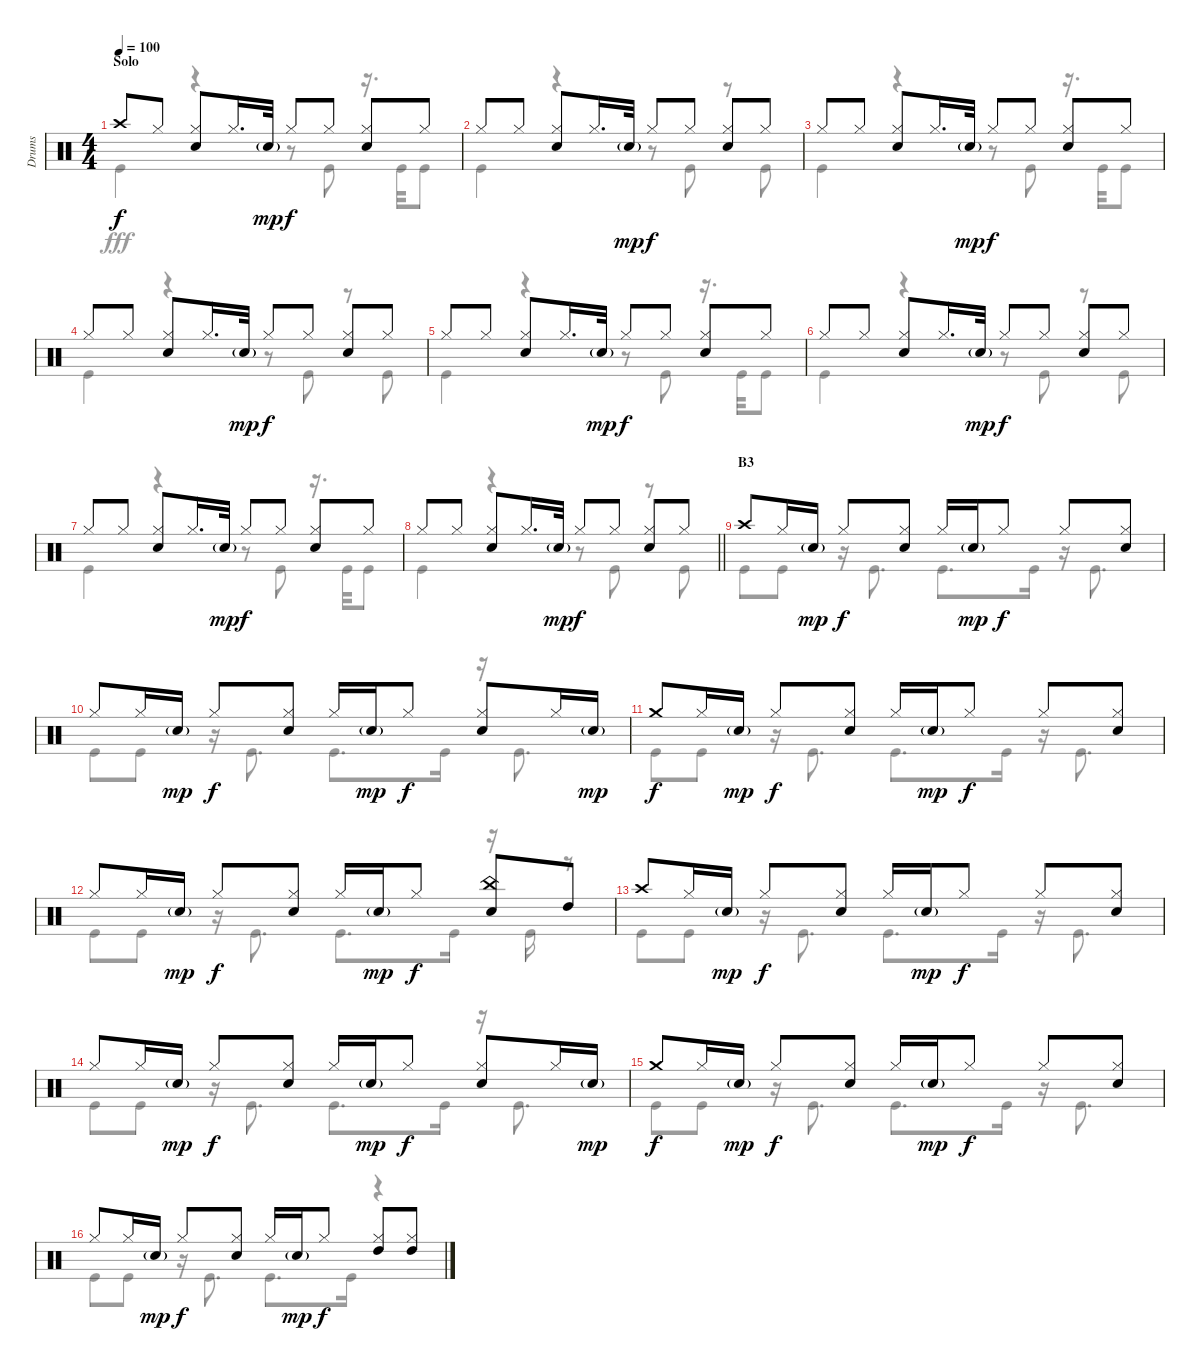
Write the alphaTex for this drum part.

\track ("Drums" "Drums") {instrument percussion}
\staff {score}
\articulation defaults
\voice
\ts (4 4)
\section ("" "Solo")
\tempo 100
\clef neutral
\ks c "Crash high (hit)".8{dy f} "Hi-Hat (closed)".8
("Hi-Hat (closed)" "Snare (hit) 2").8 "Hi-Hat (closed)".16{d} "Snare (hit) 2"{g}.32{dy mp} "Hi-Hat (closed)".8{dy f} "Hi-Hat (closed)".8 ("Hi-Hat (closed)" "Snare (hit) 2").8 "Hi-Hat (closed)".8 |
"Hi-Hat (closed)".8 "Hi-Hat (closed)".8 ("Hi-Hat (closed)" "Snare (hit) 2").8 "Hi-Hat (closed)".16{d} "Snare (hit) 2"{g}.32{dy mp} "Hi-Hat (closed)".8{dy f} "Hi-Hat (closed)".8 ("Hi-Hat (closed)" "Snare (hit) 2").8 "Hi-Hat (closed)".8 |
"Hi-Hat (closed)".8 "Hi-Hat (closed)".8 ("Hi-Hat (closed)" "Snare (hit) 2").8 "Hi-Hat (closed)".16{d} "Snare (hit) 2"{g}.32{dy mp} "Hi-Hat (closed)".8{dy f} "Hi-Hat (closed)".8 ("Hi-Hat (closed)" "Snare (hit) 2").8 "Hi-Hat (closed)".8 |
"Hi-Hat (closed)".8 "Hi-Hat (closed)".8 ("Hi-Hat (closed)" "Snare (hit) 2").8 "Hi-Hat (closed)".16{d} "Snare (hit) 2"{g}.32{dy mp} "Hi-Hat (closed)".8{dy f} "Hi-Hat (closed)".8 ("Hi-Hat (closed)" "Snare (hit) 2").8 "Hi-Hat (closed)".8 |
"Hi-Hat (closed)".8 "Hi-Hat (closed)".8 ("Hi-Hat (closed)" "Snare (hit) 2").8 "Hi-Hat (closed)".16{d} "Snare (hit) 2"{g}.32{dy mp} "Hi-Hat (closed)".8{dy f} "Hi-Hat (closed)".8 ("Hi-Hat (closed)" "Snare (hit) 2").8 "Hi-Hat (closed)".8 |
"Hi-Hat (closed)".8 "Hi-Hat (closed)".8 ("Hi-Hat (closed)" "Snare (hit) 2").8 "Hi-Hat (closed)".16{d} "Snare (hit) 2"{g}.32{dy mp} "Hi-Hat (closed)".8{dy f} "Hi-Hat (closed)".8 ("Hi-Hat (closed)" "Snare (hit) 2").8 "Hi-Hat (closed)".8 |
"Hi-Hat (closed)".8 "Hi-Hat (closed)".8 ("Hi-Hat (closed)" "Snare (hit) 2").8 "Hi-Hat (closed)".16{d} "Snare (hit) 2"{g}.32{dy mp} "Hi-Hat (closed)".8{dy f} "Hi-Hat (closed)".8 ("Hi-Hat (closed)" "Snare (hit) 2").8 "Hi-Hat (closed)".8 |
\barLineRight lightlight "Hi-Hat (closed)".8 "Hi-Hat (closed)".8
("Hi-Hat (closed)" "Snare (hit) 2").8 "Hi-Hat (closed)".16{d} "Snare (hit) 2"{g}.32{dy mp} "Hi-Hat (closed)".8{dy f} "Hi-Hat (closed)".8 ("Hi-Hat (closed)" "Snare (hit) 2").8 "Hi-Hat (closed)".8 |
\section ("" "B3")
"Crash high (hit)".8 "Hi-Hat (closed)".16 "Snare (hit) 2"{g}.16{dy mp} "Hi-Hat (closed)".8{dy f} ("Hi-Hat (closed)" "Snare (hit) 2").8 "Hi-Hat (closed)".16 "Snare (hit) 2"{g}.16{dy mp} "Hi-Hat (closed)".8{dy f} "Hi-Hat (closed)".8 ("Hi-Hat (closed)" "Snare (hit) 2").8 |
"Hi-Hat (closed)".8 "Hi-Hat (closed)".16 "Snare (hit) 2"{g}.16{dy mp} "Hi-Hat (closed)".8{dy f} ("Hi-Hat (closed)" "Snare (hit) 2").8 "Hi-Hat (closed)".16 "Snare (hit) 2"{g}.16{dy mp} "Hi-Hat (closed)".8{dy f} ("Hi-Hat (closed)" "Snare (hit) 2").8 "Hi-Hat (closed)".16 "Snare (hit) 2"{g}.16{dy mp} |
"Crash medium (hit)".8{dy f} "Hi-Hat (closed)".16 "Snare (hit) 2"{g}.16{dy mp} "Hi-Hat (closed)".8{dy f} ("Hi-Hat (closed)" "Snare (hit) 2").8 "Hi-Hat (closed)".16 "Snare (hit) 2"{g}.16{dy mp} "Hi-Hat (closed)".8{dy f} "Hi-Hat (closed)".8 ("Hi-Hat (closed)" "Snare (hit) 2").8 |
"Hi-Hat (closed)".8 "Hi-Hat (closed)".16 "Snare (hit) 2"{g}.16{dy mp} "Hi-Hat (closed)".8{dy f} ("Hi-Hat (closed)" "Snare (hit) 2").8 "Hi-Hat (closed)".16 "Snare (hit) 2"{g}.16{dy mp} "Hi-Hat (closed)".8{dy f} ("China (hit)" "Snare (hit) 2").8 "High Tom (hit)".8 |
"Crash high (hit)".8 "Hi-Hat (closed)".16 "Snare (hit) 2"{g}.16{dy mp} "Hi-Hat (closed)".8{dy f} ("Hi-Hat (closed)" "Snare (hit) 2").8 "Hi-Hat (closed)".16 "Snare (hit) 2"{g}.16{dy mp} "Hi-Hat (closed)".8{dy f} "Hi-Hat (closed)".8 ("Hi-Hat (closed)" "Snare (hit) 2").8 |
"Hi-Hat (closed)".8 "Hi-Hat (closed)".16 "Snare (hit) 2"{g}.16{dy mp} "Hi-Hat (closed)".8{dy f} ("Hi-Hat (closed)" "Snare (hit) 2").8 "Hi-Hat (closed)".16 "Snare (hit) 2"{g}.16{dy mp} "Hi-Hat (closed)".8{dy f} ("Hi-Hat (closed)" "Snare (hit) 2").8 "Hi-Hat (closed)".16 "Snare (hit) 2"{g}.16{dy mp} |
"Crash medium (hit)".8{dy f} "Hi-Hat (closed)".16 "Snare (hit) 2"{g}.16{dy mp} "Hi-Hat (closed)".8{dy f} ("Hi-Hat (closed)" "Snare (hit) 2").8 "Hi-Hat (closed)".16 "Snare (hit) 2"{g}.16{dy mp} "Hi-Hat (closed)".8{dy f} "Hi-Hat (closed)".8 ("Hi-Hat (closed)" "Snare (hit) 2").8 |
"Hi-Hat (closed)".8 "Hi-Hat (closed)".16 "Snare (hit) 2"{g}.16{dy mp} "Hi-Hat (closed)".8{dy f} ("Hi-Hat (closed)" "Snare (hit) 2").8 "Hi-Hat (closed)".16 "Snare (hit) 2"{g}.16{dy mp} "Hi-Hat (closed)".8{dy f} ("Hi-Hat (closed)" "High Tom (hit)").8 ("Hi-Hat (closed)" "High Tom (hit)").8
\voice
\clef neutral
\ottava regular
\simile none
\ks c "Kick (hit)".4{dy fff}
r.4 r.8 "Kick (hit)".8 r.16{d} "Kick (hit)".32 "Kick (hit)".8 |
"Kick (hit)".4 r.4 r.8 "Kick (hit)".8 r.8 "Kick (hit)".8 |
"Kick (hit)".4 r.4 r.8 "Kick (hit)".8 r.16{d} "Kick (hit)".32 "Kick (hit)".8 |
"Kick (hit)".4 r.4 r.8 "Kick (hit)".8 r.8 "Kick (hit)".8 |
"Kick (hit)".4 r.4 r.8 "Kick (hit)".8 r.16{d} "Kick (hit)".32 "Kick (hit)".8 |
"Kick (hit)".4 r.4 r.8 "Kick (hit)".8 r.8 "Kick (hit)".8 |
"Kick (hit)".4 r.4 r.8 "Kick (hit)".8 r.16{d} "Kick (hit)".32 "Kick (hit)".8 |
\barLineRight lightlight "Kick (hit)".4
r.4 r.8 "Kick (hit)".8 r.8 "Kick (hit)".8 |
"Kick (hit)".8 "Kick (hit)".8 r.16 "Kick (hit)".8{d} "Kick (hit)".8{d} "Kick (hit)".16 r.16 "Kick (hit)".8{d} |
"Kick (hit)".8 "Kick (hit)".8 r.16 "Kick (hit)".8{d} "Kick (hit)".8{d} "Kick (hit)".16 r.16 "Kick (hit)".8{d} |
"Kick (hit)".8 "Kick (hit)".8 r.16 "Kick (hit)".8{d} "Kick (hit)".8{d} "Kick (hit)".16 r.16 "Kick (hit)".8{d} |
"Kick (hit)".8 "Kick (hit)".8 r.16 "Kick (hit)".8{d} "Kick (hit)".8{d} "Kick (hit)".16 r.16 "Kick (hit)".16 r.8 |
"Kick (hit)".8 "Kick (hit)".8 r.16 "Kick (hit)".8{d} "Kick (hit)".8{d} "Kick (hit)".16 r.16 "Kick (hit)".8{d} |
"Kick (hit)".8 "Kick (hit)".8 r.16 "Kick (hit)".8{d} "Kick (hit)".8{d} "Kick (hit)".16 r.16 "Kick (hit)".8{d} |
"Kick (hit)".8 "Kick (hit)".8 r.16 "Kick (hit)".8{d} "Kick (hit)".8{d} "Kick (hit)".16 r.16 "Kick (hit)".8{d} |
"Kick (hit)".8 "Kick (hit)".8 r.16 "Kick (hit)".8{d} "Kick (hit)".8{d} "Kick (hit)".16 r.4
